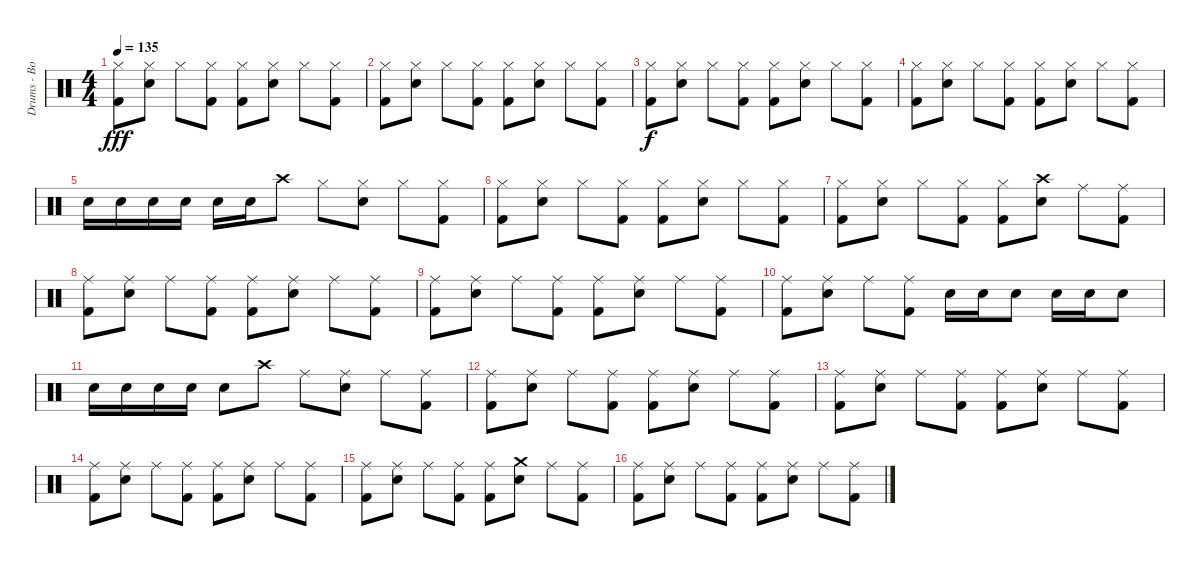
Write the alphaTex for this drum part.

\track ("Drums - Bobby Schayer" "Drums - Bo") {instrument percussion}
\staff {score}
\articulation defaults
\ts (4 4)
\tempo 135
\clef neutral
\ks c
("Hi-Hat (closed)" "Kick (hit) 2").8{dy fff} ("Hi-Hat (closed)" "Electric Snare (hit)").8 "Hi-Hat (closed)".8 ("Hi-Hat (closed)" "Kick (hit) 2").8 ("Hi-Hat (closed)" "Kick (hit) 2").8 ("Hi-Hat (closed)" "Electric Snare (hit)").8 "Hi-Hat (closed)".8 ("Hi-Hat (closed)" "Kick (hit) 2").8 |
("Hi-Hat (closed)" "Kick (hit) 2").8 ("Hi-Hat (closed)" "Electric Snare (hit)").8 "Hi-Hat (closed)".8 ("Hi-Hat (closed)" "Kick (hit) 2").8 ("Hi-Hat (closed)" "Kick (hit) 2").8 ("Hi-Hat (closed)" "Electric Snare (hit)").8 "Hi-Hat (closed)".8 ("Hi-Hat (closed)" "Kick (hit) 2").8 |
("Hi-Hat (closed)" "Kick (hit) 2").8{dy f} ("Hi-Hat (closed)" "Electric Snare (hit)").8 "Hi-Hat (closed)".8 ("Hi-Hat (closed)" "Kick (hit) 2").8 ("Hi-Hat (closed)" "Kick (hit) 2").8 ("Hi-Hat (closed)" "Electric Snare (hit)").8 "Hi-Hat (closed)".8 ("Hi-Hat (closed)" "Kick (hit) 2").8 |
("Hi-Hat (closed)" "Kick (hit) 2").8 ("Hi-Hat (closed)" "Electric Snare (hit)").8 "Hi-Hat (closed)".8 ("Hi-Hat (closed)" "Kick (hit) 2").8 ("Hi-Hat (closed)" "Kick (hit) 2").8 ("Hi-Hat (closed)" "Electric Snare (hit)").8 "Hi-Hat (closed)".8 ("Hi-Hat (closed)" "Kick (hit) 2").8 |
"Electric Snare (hit)".16 "Electric Snare (hit)".16 "Electric Snare (hit)".16 "Electric Snare (hit)".16 "Electric Snare (hit)".16 "Electric Snare (hit)".16 "Crash high (hit)".8 "Hi-Hat (closed)".8 ("Hi-Hat (closed)" "Electric Snare (hit)").8 "Hi-Hat (closed)".8 ("Hi-Hat (closed)" "Kick (hit) 2").8 |
("Hi-Hat (closed)" "Kick (hit) 2").8 ("Hi-Hat (closed)" "Electric Snare (hit)").8 "Hi-Hat (closed)".8 ("Hi-Hat (closed)" "Kick (hit) 2").8 ("Hi-Hat (closed)" "Kick (hit) 2").8 ("Hi-Hat (closed)" "Electric Snare (hit)").8 "Hi-Hat (closed)".8 ("Hi-Hat (closed)" "Kick (hit) 2").8 |
("Hi-Hat (closed)" "Kick (hit) 2").8 ("Hi-Hat (closed)" "Electric Snare (hit)").8 "Hi-Hat (closed)".8 ("Hi-Hat (closed)" "Kick (hit) 2").8 ("Hi-Hat (closed)" "Kick (hit) 2").8 ("Crash high (hit)" "Electric Snare (hit)").8 "Ride (middle)".8 ("Ride (middle)" "Kick (hit) 2").8 |
("Ride (middle)" "Kick (hit) 2").8 ("Ride (middle)" "Electric Snare (hit)").8 "Ride (middle)".8 ("Ride (middle)" "Kick (hit) 2").8 ("Ride (middle)" "Kick (hit) 2").8 ("Ride (middle)" "Electric Snare (hit)").8 "Ride (middle)".8 ("Ride (middle)" "Kick (hit) 2").8 |
("Ride (middle)" "Kick (hit) 2").8 ("Ride (middle)" "Electric Snare (hit)").8 "Ride (middle)".8 ("Ride (middle)" "Kick (hit) 2").8 ("Ride (middle)" "Kick (hit) 2").8 ("Ride (middle)" "Electric Snare (hit)").8 "Ride (middle)".8 ("Ride (middle)" "Kick (hit) 2").8 |
("Ride (middle)" "Kick (hit) 2").8 ("Ride (middle)" "Electric Snare (hit)").8 "Ride (middle)".8 ("Ride (middle)" "Kick (hit) 2").8 "Electric Snare (hit)".16 "Electric Snare (hit)".16 "Electric Snare (hit)".8 "Electric Snare (hit)".16 "Electric Snare (hit)".16 "Electric Snare (hit)".8 |
"Electric Snare (hit)".16 "Electric Snare (hit)".16 "Electric Snare (hit)".16 "Electric Snare (hit)".16 "Electric Snare (hit)".8 "Crash high (hit)".8 "Ride (middle)".8 ("Ride (middle)" "Electric Snare (hit)").8 "Ride (middle)".8 ("Ride (middle)" "Kick (hit) 2").8 |
("Ride (middle)" "Kick (hit) 2").8 ("Ride (middle)" "Electric Snare (hit)").8 "Ride (middle)".8 ("Ride (middle)" "Kick (hit) 2").8 ("Ride (middle)" "Kick (hit) 2").8 ("Ride (middle)" "Electric Snare (hit)").8 "Ride (middle)".8 ("Ride (middle)" "Kick (hit) 2").8 |
("Ride (middle)" "Kick (hit) 2").8 ("Ride (middle)" "Electric Snare (hit)").8 "Ride (middle)".8 ("Ride (middle)" "Kick (hit) 2").8 ("Ride (middle)" "Kick (hit) 2").8 ("Ride (middle)" "Electric Snare (hit)").8 "Ride (middle)".8 ("Ride (middle)" "Kick (hit) 2").8 |
("Ride (middle)" "Kick (hit) 2").8 ("Ride (middle)" "Electric Snare (hit)").8 "Ride (middle)".8 ("Ride (middle)" "Kick (hit) 2").8 ("Ride (middle)" "Kick (hit) 2").8 ("Ride (middle)" "Electric Snare (hit)").8 "Ride (middle)".8 ("Ride (middle)" "Kick (hit) 2").8 |
("Ride (middle)" "Kick (hit) 2").8 ("Ride (middle)" "Electric Snare (hit)").8 "Ride (middle)".8 ("Ride (middle)" "Kick (hit) 2").8 ("Ride (middle)" "Kick (hit) 2").8 ("Crash medium (hit)" "Electric Snare (hit)").8 "Ride (middle)".8 ("Ride (middle)" "Kick (hit) 2").8 |
("Ride (middle)" "Kick (hit) 2").8 ("Ride (middle)" "Electric Snare (hit)").8 "Ride (middle)".8 ("Ride (middle)" "Kick (hit) 2").8 ("Ride (middle)" "Kick (hit) 2").8 ("Ride (middle)" "Electric Snare (hit)").8 "Ride (middle)".8 ("Ride (middle)" "Kick (hit) 2").8
